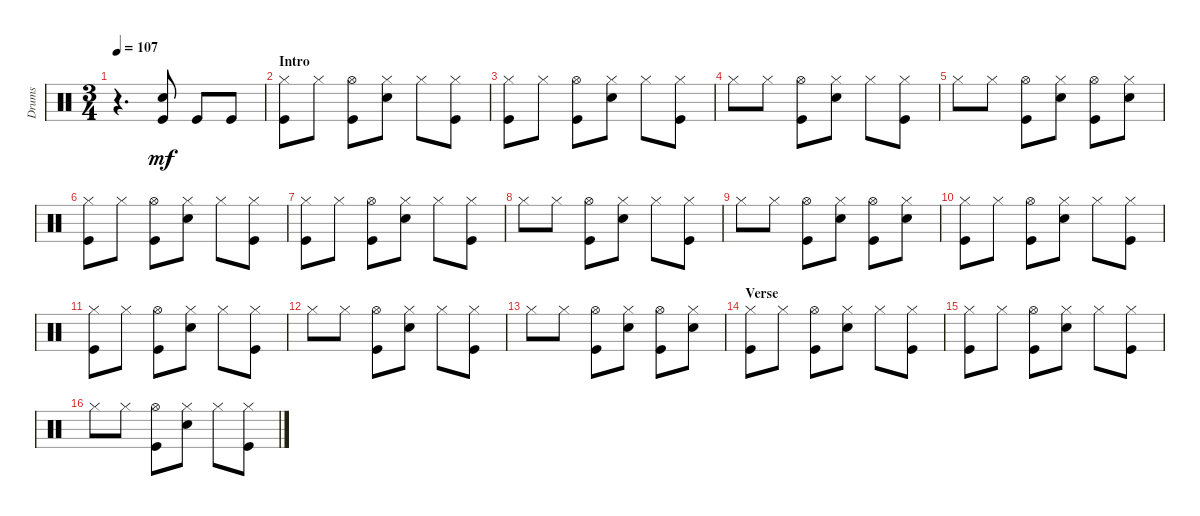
\track ("Drums" "Drums") {instrument percussion}
\staff {score}
\articulation defaults
\ts (3 4)
\tempo 107
\clef neutral
\ks c
r.4{d dy mf} ("Snare (hit) 2" "Kick (hit)").8 "Kick (hit)".8 "Kick (hit)".8 |
\section ("" "Intro")
("Hi-Hat (closed)" "Kick (hit)").8 "Hi-Hat (closed)".8 ("Hi-Hat (open)" "Kick (hit)").8 ("Snare (hit) 2" "Hi-Hat (closed)").8 "Hi-Hat (closed)".8 ("Hi-Hat (closed)" "Kick (hit)").8 |
("Hi-Hat (closed)" "Kick (hit)").8 "Hi-Hat (closed)".8 ("Hi-Hat (open)" "Kick (hit)").8 ("Hi-Hat (closed)" "Snare (hit) 2").8 "Hi-Hat (closed)".8 ("Hi-Hat (closed)" "Kick (hit)").8 |
"Hi-Hat (closed)".8 "Hi-Hat (closed)".8 ("Hi-Hat (open)" "Kick (hit)").8 ("Snare (hit) 2" "Hi-Hat (closed)").8 "Hi-Hat (closed)".8 ("Kick (hit)" "Hi-Hat (closed)").8 |
"Hi-Hat (closed)".8 "Hi-Hat (closed)".8 ("Hi-Hat (open)" "Kick (hit)").8 ("Hi-Hat (closed)" "Snare (hit) 2").8 ("Hi-Hat (open)" "Kick (hit)").8 ("Hi-Hat (closed)" "Snare (hit) 2").8 |
("Hi-Hat (closed)" "Kick (hit)").8 "Hi-Hat (closed)".8 ("Hi-Hat (open)" "Kick (hit)").8 ("Snare (hit) 2" "Hi-Hat (closed)").8 "Hi-Hat (closed)".8 ("Hi-Hat (closed)" "Kick (hit)").8 |
("Hi-Hat (closed)" "Kick (hit)").8 "Hi-Hat (closed)".8 ("Hi-Hat (open)" "Kick (hit)").8 ("Hi-Hat (closed)" "Snare (hit) 2").8 "Hi-Hat (closed)".8 ("Hi-Hat (closed)" "Kick (hit)").8 |
"Hi-Hat (closed)".8 "Hi-Hat (closed)".8 ("Hi-Hat (open)" "Kick (hit)").8 ("Snare (hit) 2" "Hi-Hat (closed)").8 "Hi-Hat (closed)".8 ("Kick (hit)" "Hi-Hat (closed)").8 |
"Hi-Hat (closed)".8 "Hi-Hat (closed)".8 ("Hi-Hat (open)" "Kick (hit)").8 ("Hi-Hat (closed)" "Snare (hit) 2").8 ("Hi-Hat (open)" "Kick (hit)").8 ("Hi-Hat (closed)" "Snare (hit) 2").8 |
("Hi-Hat (closed)" "Kick (hit)").8 "Hi-Hat (closed)".8 ("Hi-Hat (open)" "Kick (hit)").8 ("Snare (hit) 2" "Hi-Hat (closed)").8 "Hi-Hat (closed)".8 ("Hi-Hat (closed)" "Kick (hit)").8 |
("Hi-Hat (closed)" "Kick (hit)").8 "Hi-Hat (closed)".8 ("Hi-Hat (open)" "Kick (hit)").8 ("Hi-Hat (closed)" "Snare (hit) 2").8 "Hi-Hat (closed)".8 ("Hi-Hat (closed)" "Kick (hit)").8 |
"Hi-Hat (closed)".8 "Hi-Hat (closed)".8 ("Hi-Hat (open)" "Kick (hit)").8 ("Snare (hit) 2" "Hi-Hat (closed)").8 "Hi-Hat (closed)".8 ("Kick (hit)" "Hi-Hat (closed)").8 |
"Hi-Hat (closed)".8 "Hi-Hat (closed)".8 ("Hi-Hat (open)" "Kick (hit)").8 ("Hi-Hat (closed)" "Snare (hit) 2").8 ("Hi-Hat (open)" "Kick (hit)").8 ("Hi-Hat (closed)" "Snare (hit) 2").8 |
\section ("" "Verse")
("Hi-Hat (closed)" "Kick (hit)").8 "Hi-Hat (closed)".8 ("Hi-Hat (open)" "Kick (hit)").8 ("Snare (hit) 2" "Hi-Hat (closed)").8 "Hi-Hat (closed)".8 ("Hi-Hat (closed)" "Kick (hit)").8 |
("Hi-Hat (closed)" "Kick (hit)").8 "Hi-Hat (closed)".8 ("Hi-Hat (open)" "Kick (hit)").8 ("Hi-Hat (closed)" "Snare (hit) 2").8 "Hi-Hat (closed)".8 ("Hi-Hat (closed)" "Kick (hit)").8 |
"Hi-Hat (closed)".8 "Hi-Hat (closed)".8 ("Hi-Hat (open)" "Kick (hit)").8 ("Snare (hit) 2" "Hi-Hat (closed)").8 "Hi-Hat (closed)".8 ("Kick (hit)" "Hi-Hat (closed)").8
